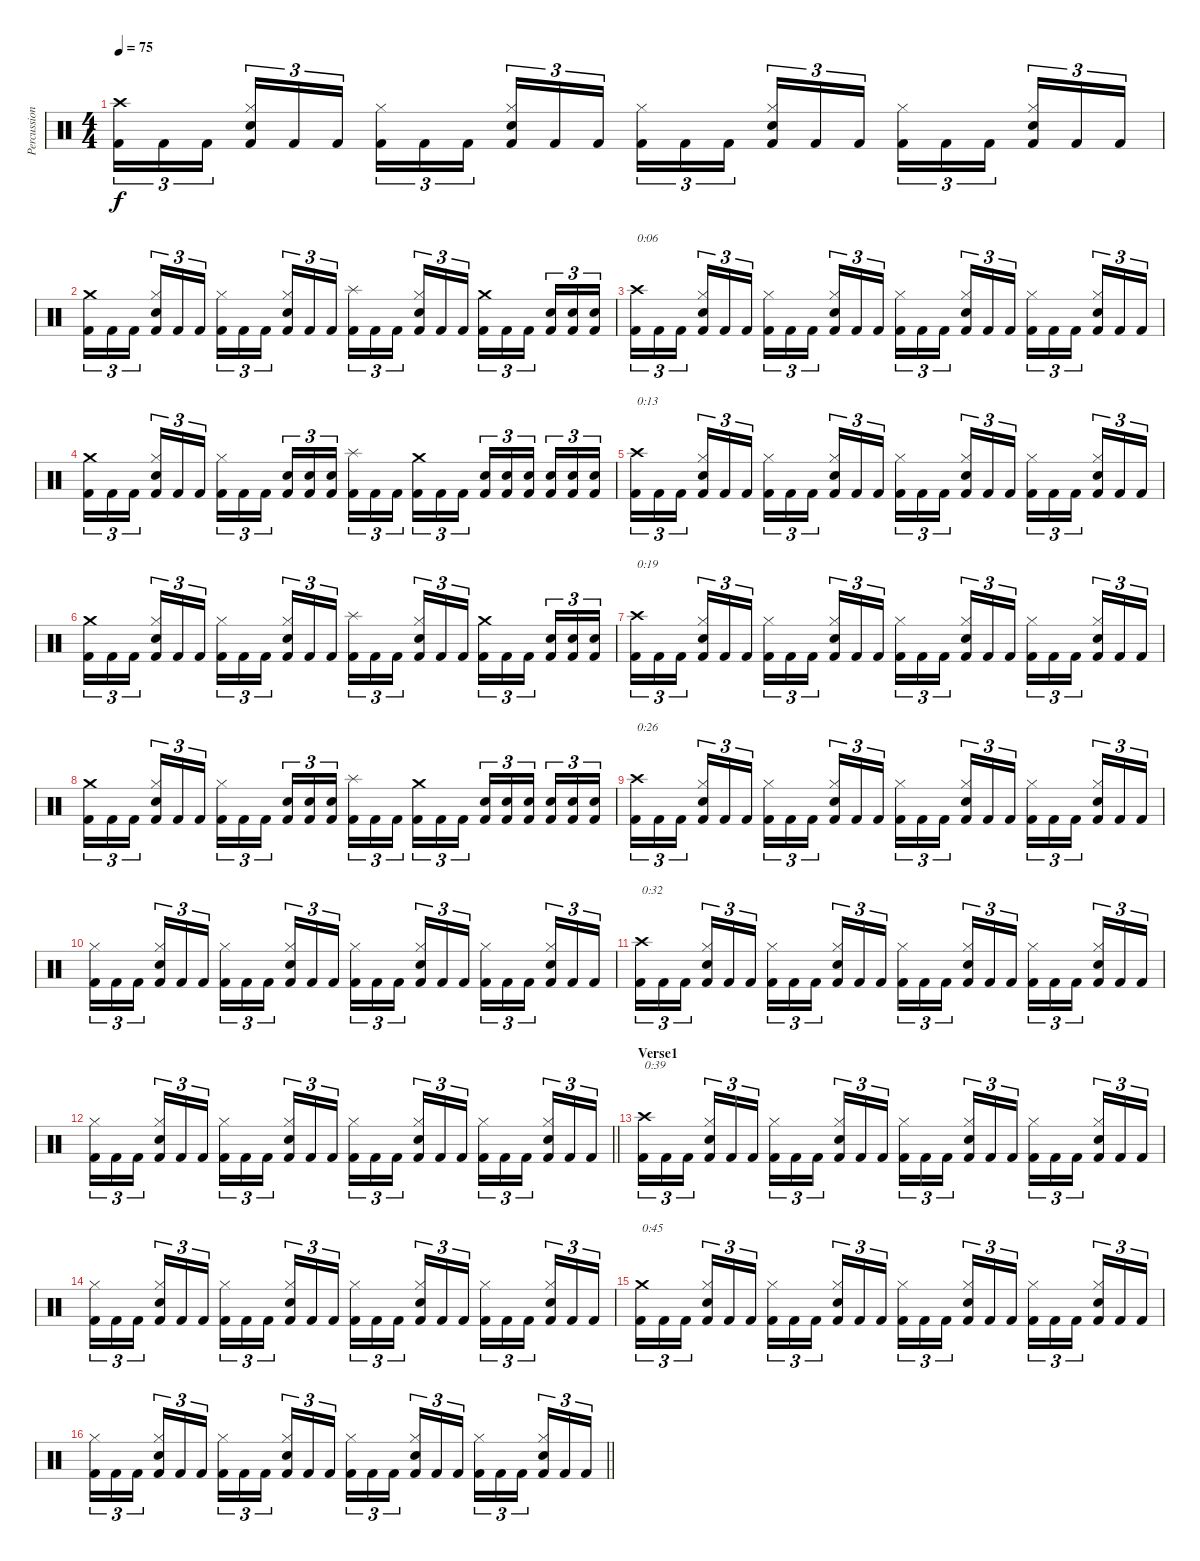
\track ("Percussion" "Percussion") {instrument percussion}
\staff {score}
\articulation defaults
\ts (4 4)
\tempo 75
\clef neutral
\ks c
("Crash high (hit)" "Kick (hit) 2").16{tu (3 2) dy f} "Kick (hit) 2".16{tu (3 2)} "Kick (hit) 2".16{tu (3 2)} ("Hi-Hat (closed)" "Snare (hit) 2" "Kick (hit) 2").16{tu (3 2)} "Kick (hit) 2".16{tu (3 2)} "Kick (hit) 2".16{tu (3 2)} ("Hi-Hat (closed)" "Kick (hit) 2").16{tu (3 2)} "Kick (hit) 2".16{tu (3 2)} "Kick (hit) 2".16{tu (3 2)} ("Hi-Hat (closed)" "Snare (hit) 2" "Kick (hit) 2").16{tu (3 2)} "Kick (hit) 2".16{tu (3 2)} "Kick (hit) 2".16{tu (3 2)} ("Hi-Hat (closed)" "Kick (hit) 2").16{tu (3 2)} "Kick (hit) 2".16{tu (3 2)} "Kick (hit) 2".16{tu (3 2)} ("Hi-Hat (closed)" "Snare (hit) 2" "Kick (hit) 2").16{tu (3 2)} "Kick (hit) 2".16{tu (3 2)} "Kick (hit) 2".16{tu (3 2)} ("Hi-Hat (closed)" "Kick (hit) 2").16{tu (3 2)} "Kick (hit) 2".16{tu (3 2)} "Kick (hit) 2".16{tu (3 2)} ("Hi-Hat (closed)" "Snare (hit) 2" "Kick (hit) 2").16{tu (3 2)} "Kick (hit) 2".16{tu (3 2)} "Kick (hit) 2".16{tu (3 2)} |
("Crash medium (hit)" "Kick (hit) 2").16{tu (3 2)} "Kick (hit) 2".16{tu (3 2)} "Kick (hit) 2".16{tu (3 2)} ("Hi-Hat (closed)" "Snare (hit) 2" "Kick (hit) 2").16{tu (3 2)} "Kick (hit) 2".16{tu (3 2)} "Kick (hit) 2".16{tu (3 2)} ("Hi-Hat (closed)" "Kick (hit) 2").16{tu (3 2)} "Kick (hit) 2".16{tu (3 2)} "Kick (hit) 2".16{tu (3 2)} ("Hi-Hat (closed)" "Snare (hit) 2" "Kick (hit) 2").16{tu (3 2)} "Kick (hit) 2".16{tu (3 2)} "Kick (hit) 2".16{tu (3 2)} ("Splash (hit)" "Kick (hit) 2").16{tu (3 2)} "Kick (hit) 2".16{tu (3 2)} "Kick (hit) 2".16{tu (3 2)} ("Hi-Hat (closed)" "Snare (hit) 2" "Kick (hit) 2").16{tu (3 2)} "Kick (hit) 2".16{tu (3 2)} "Kick (hit) 2".16{tu (3 2)} ("Crash medium (hit)" "Kick (hit) 2").16{tu (3 2)} "Kick (hit) 2".16{tu (3 2)} "Kick (hit) 2".16{tu (3 2)} ("Snare (hit) 2" "Kick (hit) 2").16{tu (3 2)} ("Snare (hit) 2" "Kick (hit) 2").16{tu (3 2)} ("Snare (hit) 2" "Kick (hit) 2").16{tu (3 2)} |
("Crash high (hit)" "Kick (hit) 2").16{tu (3 2) txt "0:06"} "Kick (hit) 2".16{tu (3 2)} "Kick (hit) 2".16{tu (3 2)} ("Hi-Hat (closed)" "Snare (hit) 2" "Kick (hit) 2").16{tu (3 2)} "Kick (hit) 2".16{tu (3 2)} "Kick (hit) 2".16{tu (3 2)} ("Hi-Hat (closed)" "Kick (hit) 2").16{tu (3 2)} "Kick (hit) 2".16{tu (3 2)} "Kick (hit) 2".16{tu (3 2)} ("Hi-Hat (closed)" "Snare (hit) 2" "Kick (hit) 2").16{tu (3 2)} "Kick (hit) 2".16{tu (3 2)} "Kick (hit) 2".16{tu (3 2)} ("Hi-Hat (closed)" "Kick (hit) 2").16{tu (3 2)} "Kick (hit) 2".16{tu (3 2)} "Kick (hit) 2".16{tu (3 2)} ("Hi-Hat (closed)" "Snare (hit) 2" "Kick (hit) 2").16{tu (3 2)} "Kick (hit) 2".16{tu (3 2)} "Kick (hit) 2".16{tu (3 2)} ("Hi-Hat (closed)" "Kick (hit) 2").16{tu (3 2)} "Kick (hit) 2".16{tu (3 2)} "Kick (hit) 2".16{tu (3 2)} ("Hi-Hat (closed)" "Snare (hit) 2" "Kick (hit) 2").16{tu (3 2)} "Kick (hit) 2".16{tu (3 2)} "Kick (hit) 2".16{tu (3 2)} |
("Crash medium (hit)" "Kick (hit) 2").16{tu (3 2)} "Kick (hit) 2".16{tu (3 2)} "Kick (hit) 2".16{tu (3 2)} ("Hi-Hat (closed)" "Snare (hit) 2" "Kick (hit) 2").16{tu (3 2)} "Kick (hit) 2".16{tu (3 2)} "Kick (hit) 2".16{tu (3 2)} ("Hi-Hat (closed)" "Kick (hit) 2").16{tu (3 2)} "Kick (hit) 2".16{tu (3 2)} "Kick (hit) 2".16{tu (3 2)} ("Snare (hit) 2" "Kick (hit) 2").16{tu (3 2)} ("Snare (hit) 2" "Kick (hit) 2").16{tu (3 2)} ("Snare (hit) 2" "Kick (hit) 2").16{tu (3 2)} ("Splash (hit)" "Kick (hit) 2").16{tu (3 2)} "Kick (hit) 2".16{tu (3 2)} "Kick (hit) 2".16{tu (3 2)} ("Crash medium (hit)" "Kick (hit) 2").16{tu (3 2)} "Kick (hit) 2".16{tu (3 2)} "Kick (hit) 2".16{tu (3 2)} ("Snare (hit) 2" "Kick (hit) 2").16{tu (3 2)} ("Snare (hit) 2" "Kick (hit) 2").16{tu (3 2)} ("Snare (hit) 2" "Kick (hit) 2").16{tu (3 2)} ("Snare (hit) 2" "Kick (hit) 2").16{tu (3 2)} ("Snare (hit) 2" "Kick (hit) 2").16{tu (3 2)} ("Snare (hit) 2" "Kick (hit) 2").16{tu (3 2)} |
("Crash high (hit)" "Kick (hit) 2").16{tu (3 2) txt "0:13"} "Kick (hit) 2".16{tu (3 2)} "Kick (hit) 2".16{tu (3 2)} ("Hi-Hat (closed)" "Snare (hit) 2" "Kick (hit) 2").16{tu (3 2)} "Kick (hit) 2".16{tu (3 2)} "Kick (hit) 2".16{tu (3 2)} ("Hi-Hat (closed)" "Kick (hit) 2").16{tu (3 2)} "Kick (hit) 2".16{tu (3 2)} "Kick (hit) 2".16{tu (3 2)} ("Hi-Hat (closed)" "Snare (hit) 2" "Kick (hit) 2").16{tu (3 2)} "Kick (hit) 2".16{tu (3 2)} "Kick (hit) 2".16{tu (3 2)} ("Hi-Hat (closed)" "Kick (hit) 2").16{tu (3 2)} "Kick (hit) 2".16{tu (3 2)} "Kick (hit) 2".16{tu (3 2)} ("Hi-Hat (closed)" "Snare (hit) 2" "Kick (hit) 2").16{tu (3 2)} "Kick (hit) 2".16{tu (3 2)} "Kick (hit) 2".16{tu (3 2)} ("Hi-Hat (closed)" "Kick (hit) 2").16{tu (3 2)} "Kick (hit) 2".16{tu (3 2)} "Kick (hit) 2".16{tu (3 2)} ("Hi-Hat (closed)" "Snare (hit) 2" "Kick (hit) 2").16{tu (3 2)} "Kick (hit) 2".16{tu (3 2)} "Kick (hit) 2".16{tu (3 2)} |
("Crash medium (hit)" "Kick (hit) 2").16{tu (3 2)} "Kick (hit) 2".16{tu (3 2)} "Kick (hit) 2".16{tu (3 2)} ("Hi-Hat (closed)" "Snare (hit) 2" "Kick (hit) 2").16{tu (3 2)} "Kick (hit) 2".16{tu (3 2)} "Kick (hit) 2".16{tu (3 2)} ("Hi-Hat (closed)" "Kick (hit) 2").16{tu (3 2)} "Kick (hit) 2".16{tu (3 2)} "Kick (hit) 2".16{tu (3 2)} ("Hi-Hat (closed)" "Snare (hit) 2" "Kick (hit) 2").16{tu (3 2)} "Kick (hit) 2".16{tu (3 2)} "Kick (hit) 2".16{tu (3 2)} ("Splash (hit)" "Kick (hit) 2").16{tu (3 2)} "Kick (hit) 2".16{tu (3 2)} "Kick (hit) 2".16{tu (3 2)} ("Hi-Hat (closed)" "Snare (hit) 2" "Kick (hit) 2").16{tu (3 2)} "Kick (hit) 2".16{tu (3 2)} "Kick (hit) 2".16{tu (3 2)} ("Crash medium (hit)" "Kick (hit) 2").16{tu (3 2)} "Kick (hit) 2".16{tu (3 2)} "Kick (hit) 2".16{tu (3 2)} ("Snare (hit) 2" "Kick (hit) 2").16{tu (3 2)} ("Snare (hit) 2" "Kick (hit) 2").16{tu (3 2)} ("Snare (hit) 2" "Kick (hit) 2").16{tu (3 2)} |
("Crash high (hit)" "Kick (hit) 2").16{tu (3 2) txt "0:19"} "Kick (hit) 2".16{tu (3 2)} "Kick (hit) 2".16{tu (3 2)} ("Hi-Hat (closed)" "Snare (hit) 2" "Kick (hit) 2").16{tu (3 2)} "Kick (hit) 2".16{tu (3 2)} "Kick (hit) 2".16{tu (3 2)} ("Hi-Hat (closed)" "Kick (hit) 2").16{tu (3 2)} "Kick (hit) 2".16{tu (3 2)} "Kick (hit) 2".16{tu (3 2)} ("Hi-Hat (closed)" "Snare (hit) 2" "Kick (hit) 2").16{tu (3 2)} "Kick (hit) 2".16{tu (3 2)} "Kick (hit) 2".16{tu (3 2)} ("Hi-Hat (closed)" "Kick (hit) 2").16{tu (3 2)} "Kick (hit) 2".16{tu (3 2)} "Kick (hit) 2".16{tu (3 2)} ("Hi-Hat (closed)" "Snare (hit) 2" "Kick (hit) 2").16{tu (3 2)} "Kick (hit) 2".16{tu (3 2)} "Kick (hit) 2".16{tu (3 2)} ("Hi-Hat (closed)" "Kick (hit) 2").16{tu (3 2)} "Kick (hit) 2".16{tu (3 2)} "Kick (hit) 2".16{tu (3 2)} ("Hi-Hat (closed)" "Snare (hit) 2" "Kick (hit) 2").16{tu (3 2)} "Kick (hit) 2".16{tu (3 2)} "Kick (hit) 2".16{tu (3 2)} |
("Crash medium (hit)" "Kick (hit) 2").16{tu (3 2)} "Kick (hit) 2".16{tu (3 2)} "Kick (hit) 2".16{tu (3 2)} ("Hi-Hat (closed)" "Snare (hit) 2" "Kick (hit) 2").16{tu (3 2)} "Kick (hit) 2".16{tu (3 2)} "Kick (hit) 2".16{tu (3 2)} ("Hi-Hat (closed)" "Kick (hit) 2").16{tu (3 2)} "Kick (hit) 2".16{tu (3 2)} "Kick (hit) 2".16{tu (3 2)} ("Snare (hit) 2" "Kick (hit) 2").16{tu (3 2)} ("Snare (hit) 2" "Kick (hit) 2").16{tu (3 2)} ("Snare (hit) 2" "Kick (hit) 2").16{tu (3 2)} ("Splash (hit)" "Kick (hit) 2").16{tu (3 2)} "Kick (hit) 2".16{tu (3 2)} "Kick (hit) 2".16{tu (3 2)} ("Crash medium (hit)" "Kick (hit) 2").16{tu (3 2)} "Kick (hit) 2".16{tu (3 2)} "Kick (hit) 2".16{tu (3 2)} ("Snare (hit) 2" "Kick (hit) 2").16{tu (3 2)} ("Snare (hit) 2" "Kick (hit) 2").16{tu (3 2)} ("Snare (hit) 2" "Kick (hit) 2").16{tu (3 2)} ("Snare (hit) 2" "Kick (hit) 2").16{tu (3 2)} ("Snare (hit) 2" "Kick (hit) 2").16{tu (3 2)} ("Snare (hit) 2" "Kick (hit) 2").16{tu (3 2)} |
("Crash high (hit)" "Kick (hit) 2").16{tu (3 2) txt "0:26"} "Kick (hit) 2".16{tu (3 2)} "Kick (hit) 2".16{tu (3 2)} ("Hi-Hat (closed)" "Snare (hit) 2" "Kick (hit) 2").16{tu (3 2)} "Kick (hit) 2".16{tu (3 2)} "Kick (hit) 2".16{tu (3 2)} ("Hi-Hat (closed)" "Kick (hit) 2").16{tu (3 2)} "Kick (hit) 2".16{tu (3 2)} "Kick (hit) 2".16{tu (3 2)} ("Hi-Hat (closed)" "Snare (hit) 2" "Kick (hit) 2").16{tu (3 2)} "Kick (hit) 2".16{tu (3 2)} "Kick (hit) 2".16{tu (3 2)} ("Hi-Hat (closed)" "Kick (hit) 2").16{tu (3 2)} "Kick (hit) 2".16{tu (3 2)} "Kick (hit) 2".16{tu (3 2)} ("Hi-Hat (closed)" "Snare (hit) 2" "Kick (hit) 2").16{tu (3 2)} "Kick (hit) 2".16{tu (3 2)} "Kick (hit) 2".16{tu (3 2)} ("Hi-Hat (closed)" "Kick (hit) 2").16{tu (3 2)} "Kick (hit) 2".16{tu (3 2)} "Kick (hit) 2".16{tu (3 2)} ("Hi-Hat (closed)" "Snare (hit) 2" "Kick (hit) 2").16{tu (3 2)} "Kick (hit) 2".16{tu (3 2)} "Kick (hit) 2".16{tu (3 2)} |
("Hi-Hat (closed)" "Kick (hit) 2").16{tu (3 2)} "Kick (hit) 2".16{tu (3 2)} "Kick (hit) 2".16{tu (3 2)} ("Hi-Hat (closed)" "Snare (hit) 2" "Kick (hit) 2").16{tu (3 2)} "Kick (hit) 2".16{tu (3 2)} "Kick (hit) 2".16{tu (3 2)} ("Hi-Hat (closed)" "Kick (hit) 2").16{tu (3 2)} "Kick (hit) 2".16{tu (3 2)} "Kick (hit) 2".16{tu (3 2)} ("Hi-Hat (closed)" "Snare (hit) 2" "Kick (hit) 2").16{tu (3 2)} "Kick (hit) 2".16{tu (3 2)} "Kick (hit) 2".16{tu (3 2)} ("Hi-Hat (closed)" "Kick (hit) 2").16{tu (3 2)} "Kick (hit) 2".16{tu (3 2)} "Kick (hit) 2".16{tu (3 2)} ("Hi-Hat (closed)" "Snare (hit) 2" "Kick (hit) 2").16{tu (3 2)} "Kick (hit) 2".16{tu (3 2)} "Kick (hit) 2".16{tu (3 2)} ("Hi-Hat (closed)" "Kick (hit) 2").16{tu (3 2)} "Kick (hit) 2".16{tu (3 2)} "Kick (hit) 2".16{tu (3 2)} ("Hi-Hat (closed)" "Snare (hit) 2" "Kick (hit) 2").16{tu (3 2)} "Kick (hit) 2".16{tu (3 2)} "Kick (hit) 2".16{tu (3 2)} |
("Crash high (hit)" "Kick (hit) 2").16{tu (3 2) txt "0:32"} "Kick (hit) 2".16{tu (3 2)} "Kick (hit) 2".16{tu (3 2)} ("Hi-Hat (closed)" "Snare (hit) 2" "Kick (hit) 2").16{tu (3 2)} "Kick (hit) 2".16{tu (3 2)} "Kick (hit) 2".16{tu (3 2)} ("Hi-Hat (closed)" "Kick (hit) 2").16{tu (3 2)} "Kick (hit) 2".16{tu (3 2)} "Kick (hit) 2".16{tu (3 2)} ("Hi-Hat (closed)" "Snare (hit) 2" "Kick (hit) 2").16{tu (3 2)} "Kick (hit) 2".16{tu (3 2)} "Kick (hit) 2".16{tu (3 2)} ("Hi-Hat (closed)" "Kick (hit) 2").16{tu (3 2)} "Kick (hit) 2".16{tu (3 2)} "Kick (hit) 2".16{tu (3 2)} ("Hi-Hat (closed)" "Snare (hit) 2" "Kick (hit) 2").16{tu (3 2)} "Kick (hit) 2".16{tu (3 2)} "Kick (hit) 2".16{tu (3 2)} ("Hi-Hat (closed)" "Kick (hit) 2").16{tu (3 2)} "Kick (hit) 2".16{tu (3 2)} "Kick (hit) 2".16{tu (3 2)} ("Hi-Hat (closed)" "Snare (hit) 2" "Kick (hit) 2").16{tu (3 2)} "Kick (hit) 2".16{tu (3 2)} "Kick (hit) 2".16{tu (3 2)} |
\barLineRight lightlight
("Hi-Hat (closed)" "Kick (hit) 2").16{tu (3 2)} "Kick (hit) 2".16{tu (3 2)} "Kick (hit) 2".16{tu (3 2)} ("Hi-Hat (closed)" "Snare (hit) 2" "Kick (hit) 2").16{tu (3 2)} "Kick (hit) 2".16{tu (3 2)} "Kick (hit) 2".16{tu (3 2)} ("Hi-Hat (closed)" "Kick (hit) 2").16{tu (3 2)} "Kick (hit) 2".16{tu (3 2)} "Kick (hit) 2".16{tu (3 2)} ("Hi-Hat (closed)" "Snare (hit) 2" "Kick (hit) 2").16{tu (3 2)} "Kick (hit) 2".16{tu (3 2)} "Kick (hit) 2".16{tu (3 2)} ("Hi-Hat (closed)" "Kick (hit) 2").16{tu (3 2)} "Kick (hit) 2".16{tu (3 2)} "Kick (hit) 2".16{tu (3 2)} ("Hi-Hat (closed)" "Snare (hit) 2" "Kick (hit) 2").16{tu (3 2)} "Kick (hit) 2".16{tu (3 2)} "Kick (hit) 2".16{tu (3 2)} ("Hi-Hat (closed)" "Kick (hit) 2").16{tu (3 2)} "Kick (hit) 2".16{tu (3 2)} "Kick (hit) 2".16{tu (3 2)} ("Hi-Hat (closed)" "Snare (hit) 2" "Kick (hit) 2").16{tu (3 2)} "Kick (hit) 2".16{tu (3 2)} "Kick (hit) 2".16{tu (3 2)} |
\section ("" "Verse1")
("Crash high (hit)" "Kick (hit) 2").16{tu (3 2) txt "0:39"} "Kick (hit) 2".16{tu (3 2)} "Kick (hit) 2".16{tu (3 2)} ("Hi-Hat (closed)" "Snare (hit) 2" "Kick (hit) 2").16{tu (3 2)} "Kick (hit) 2".16{tu (3 2)} "Kick (hit) 2".16{tu (3 2)} ("Hi-Hat (closed)" "Kick (hit) 2").16{tu (3 2)} "Kick (hit) 2".16{tu (3 2)} "Kick (hit) 2".16{tu (3 2)} ("Hi-Hat (closed)" "Snare (hit) 2" "Kick (hit) 2").16{tu (3 2)} "Kick (hit) 2".16{tu (3 2)} "Kick (hit) 2".16{tu (3 2)} ("Hi-Hat (closed)" "Kick (hit) 2").16{tu (3 2)} "Kick (hit) 2".16{tu (3 2)} "Kick (hit) 2".16{tu (3 2)} ("Hi-Hat (closed)" "Snare (hit) 2" "Kick (hit) 2").16{tu (3 2)} "Kick (hit) 2".16{tu (3 2)} "Kick (hit) 2".16{tu (3 2)} ("Hi-Hat (closed)" "Kick (hit) 2").16{tu (3 2)} "Kick (hit) 2".16{tu (3 2)} "Kick (hit) 2".16{tu (3 2)} ("Hi-Hat (closed)" "Snare (hit) 2" "Kick (hit) 2").16{tu (3 2)} "Kick (hit) 2".16{tu (3 2)} "Kick (hit) 2".16{tu (3 2)} |
("Hi-Hat (closed)" "Kick (hit) 2").16{tu (3 2)} "Kick (hit) 2".16{tu (3 2)} "Kick (hit) 2".16{tu (3 2)} ("Hi-Hat (closed)" "Snare (hit) 2" "Kick (hit) 2").16{tu (3 2)} "Kick (hit) 2".16{tu (3 2)} "Kick (hit) 2".16{tu (3 2)} ("Hi-Hat (closed)" "Kick (hit) 2").16{tu (3 2)} "Kick (hit) 2".16{tu (3 2)} "Kick (hit) 2".16{tu (3 2)} ("Hi-Hat (closed)" "Snare (hit) 2" "Kick (hit) 2").16{tu (3 2)} "Kick (hit) 2".16{tu (3 2)} "Kick (hit) 2".16{tu (3 2)} ("Hi-Hat (closed)" "Kick (hit) 2").16{tu (3 2)} "Kick (hit) 2".16{tu (3 2)} "Kick (hit) 2".16{tu (3 2)} ("Hi-Hat (closed)" "Snare (hit) 2" "Kick (hit) 2").16{tu (3 2)} "Kick (hit) 2".16{tu (3 2)} "Kick (hit) 2".16{tu (3 2)} ("Hi-Hat (closed)" "Kick (hit) 2").16{tu (3 2)} "Kick (hit) 2".16{tu (3 2)} "Kick (hit) 2".16{tu (3 2)} ("Hi-Hat (closed)" "Snare (hit) 2" "Kick (hit) 2").16{tu (3 2)} "Kick (hit) 2".16{tu (3 2)} "Kick (hit) 2".16{tu (3 2)} |
("Crash medium (hit)" "Kick (hit) 2").16{tu (3 2) txt "0:45"} "Kick (hit) 2".16{tu (3 2)} "Kick (hit) 2".16{tu (3 2)} ("Hi-Hat (closed)" "Snare (hit) 2" "Kick (hit) 2").16{tu (3 2)} "Kick (hit) 2".16{tu (3 2)} "Kick (hit) 2".16{tu (3 2)} ("Hi-Hat (closed)" "Kick (hit) 2").16{tu (3 2)} "Kick (hit) 2".16{tu (3 2)} "Kick (hit) 2".16{tu (3 2)} ("Hi-Hat (closed)" "Snare (hit) 2" "Kick (hit) 2").16{tu (3 2)} "Kick (hit) 2".16{tu (3 2)} "Kick (hit) 2".16{tu (3 2)} ("Hi-Hat (closed)" "Kick (hit) 2").16{tu (3 2)} "Kick (hit) 2".16{tu (3 2)} "Kick (hit) 2".16{tu (3 2)} ("Hi-Hat (closed)" "Snare (hit) 2" "Kick (hit) 2").16{tu (3 2)} "Kick (hit) 2".16{tu (3 2)} "Kick (hit) 2".16{tu (3 2)} ("Hi-Hat (closed)" "Kick (hit) 2").16{tu (3 2)} "Kick (hit) 2".16{tu (3 2)} "Kick (hit) 2".16{tu (3 2)} ("Hi-Hat (closed)" "Snare (hit) 2" "Kick (hit) 2").16{tu (3 2)} "Kick (hit) 2".16{tu (3 2)} "Kick (hit) 2".16{tu (3 2)} |
\barLineRight lightlight
("Hi-Hat (closed)" "Kick (hit) 2").16{tu (3 2)} "Kick (hit) 2".16{tu (3 2)} "Kick (hit) 2".16{tu (3 2)} ("Hi-Hat (closed)" "Snare (hit) 2" "Kick (hit) 2").16{tu (3 2)} "Kick (hit) 2".16{tu (3 2)} "Kick (hit) 2".16{tu (3 2)} ("Hi-Hat (closed)" "Kick (hit) 2").16{tu (3 2)} "Kick (hit) 2".16{tu (3 2)} "Kick (hit) 2".16{tu (3 2)} ("Hi-Hat (closed)" "Snare (hit) 2" "Kick (hit) 2").16{tu (3 2)} "Kick (hit) 2".16{tu (3 2)} "Kick (hit) 2".16{tu (3 2)} ("Hi-Hat (closed)" "Kick (hit) 2").16{tu (3 2)} "Kick (hit) 2".16{tu (3 2)} "Kick (hit) 2".16{tu (3 2)} ("Hi-Hat (closed)" "Snare (hit) 2" "Kick (hit) 2").16{tu (3 2)} "Kick (hit) 2".16{tu (3 2)} "Kick (hit) 2".16{tu (3 2)} ("Hi-Hat (closed)" "Kick (hit) 2").16{tu (3 2)} "Kick (hit) 2".16{tu (3 2)} "Kick (hit) 2".16{tu (3 2)} ("Hi-Hat (closed)" "Snare (hit) 2" "Kick (hit) 2").16{tu (3 2)} "Kick (hit) 2".16{tu (3 2)} "Kick (hit) 2".16{tu (3 2)}
